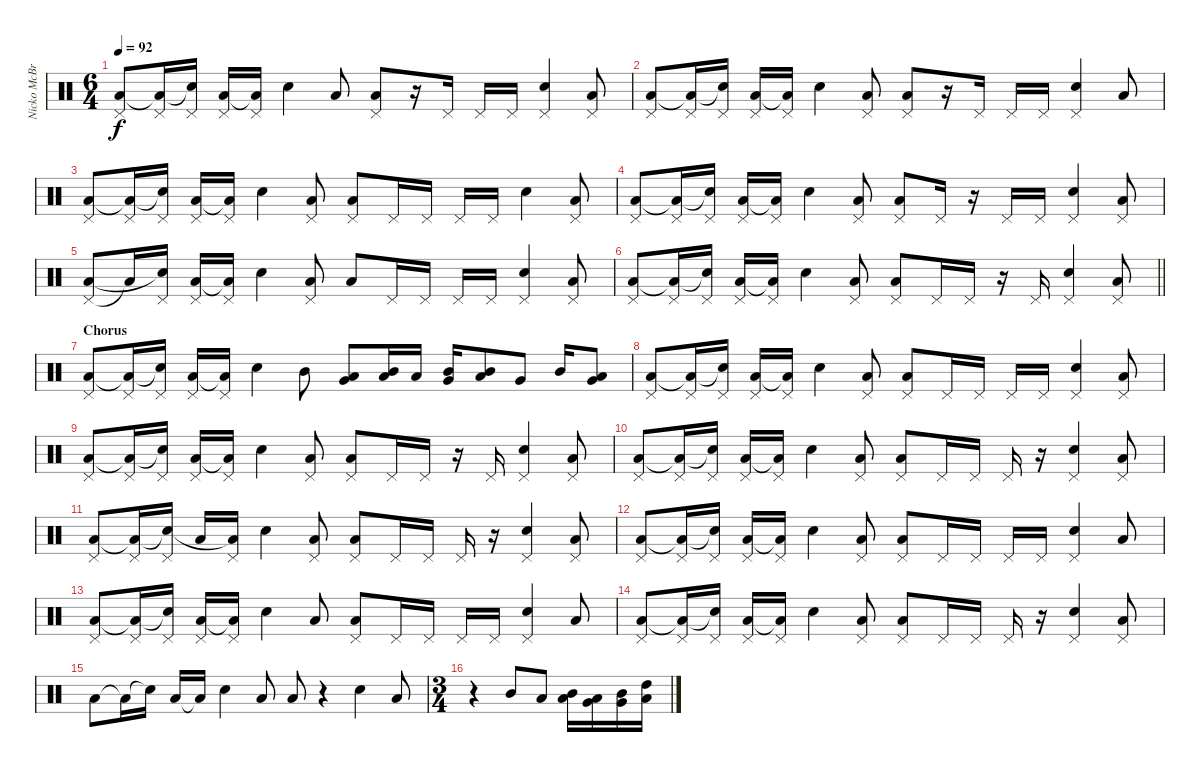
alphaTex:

\track ("Nicko McBrain" "Nicko McBr") {instrument percussion}
\staff {score}
\articulation defaults
\ts (6 4)
\tempo 92
\clef neutral
\ks c
("Pedal Hi-Hat (hit)" "Low Floor Tom (hit)").8{dy f} ("Pedal Hi-Hat (hit)" "Low Floor Tom (hit)"{t}).16 ("Pedal Hi-Hat (hit)" "Electric Snare (hit)"{t}).16 ("Pedal Hi-Hat (hit)" "Low Floor Tom (hit)").16 ("Pedal Hi-Hat (hit)" "Low Floor Tom (hit)"{t}).16 "Electric Snare (hit)".4 "Low Floor Tom (hit)".8 ("Pedal Hi-Hat (hit)" "Low Floor Tom (hit)").8 r.16 "Pedal Hi-Hat (hit)".16 "Pedal Hi-Hat (hit)".16 "Pedal Hi-Hat (hit)".16 ("Pedal Hi-Hat (hit)" "Electric Snare (hit)").4 ("Pedal Hi-Hat (hit)" "Low Floor Tom (hit)").8 |
("Pedal Hi-Hat (hit)" "Low Floor Tom (hit)").8 ("Pedal Hi-Hat (hit)" "Low Floor Tom (hit)"{t}).16 ("Pedal Hi-Hat (hit)" "Electric Snare (hit)"{t}).16 ("Pedal Hi-Hat (hit)" "Low Floor Tom (hit)").16 ("Pedal Hi-Hat (hit)" "Low Floor Tom (hit)"{t}).16 "Electric Snare (hit)".4 ("Pedal Hi-Hat (hit)" "Low Floor Tom (hit)").8 ("Pedal Hi-Hat (hit)" "Low Floor Tom (hit)").8 r.16 "Pedal Hi-Hat (hit)".16 "Pedal Hi-Hat (hit)".16 "Pedal Hi-Hat (hit)".16 ("Pedal Hi-Hat (hit)" "Electric Snare (hit)").4 "Low Floor Tom (hit)".8 |
("Pedal Hi-Hat (hit)" "Low Floor Tom (hit)").8 ("Pedal Hi-Hat (hit)" "Low Floor Tom (hit)"{t}).16 ("Pedal Hi-Hat (hit)" "Electric Snare (hit)"{t}).16 ("Pedal Hi-Hat (hit)" "Low Floor Tom (hit)").16 ("Pedal Hi-Hat (hit)" "Low Floor Tom (hit)"{t}).16 "Electric Snare (hit)".4 ("Pedal Hi-Hat (hit)" "Low Floor Tom (hit)").8 ("Pedal Hi-Hat (hit)" "Low Floor Tom (hit)").8 "Pedal Hi-Hat (hit)".16 "Pedal Hi-Hat (hit)".16 "Pedal Hi-Hat (hit)".16 "Pedal Hi-Hat (hit)".16 "Electric Snare (hit)".4 ("Pedal Hi-Hat (hit)" "Low Floor Tom (hit)").8 |
("Pedal Hi-Hat (hit)" "Low Floor Tom (hit)").8 ("Pedal Hi-Hat (hit)" "Low Floor Tom (hit)"{t}).16 ("Pedal Hi-Hat (hit)" "Electric Snare (hit)"{t}).16 ("Pedal Hi-Hat (hit)" "Low Floor Tom (hit)").16 ("Pedal Hi-Hat (hit)" "Low Floor Tom (hit)"{t}).16 "Electric Snare (hit)".4 ("Pedal Hi-Hat (hit)" "Low Floor Tom (hit)").8 ("Pedal Hi-Hat (hit)" "Low Floor Tom (hit)").8 "Pedal Hi-Hat (hit)".16 r.16 "Pedal Hi-Hat (hit)".16 "Pedal Hi-Hat (hit)".16 ("Pedal Hi-Hat (hit)" "Electric Snare (hit)").4 ("Pedal Hi-Hat (hit)" "Low Floor Tom (hit)").8 |
("Pedal Hi-Hat (hit)" "Low Floor Tom (hit)").8 "Low Floor Tom (hit)"{t}.16 ("Pedal Hi-Hat (hit)" "Electric Snare (hit)"{t}).16 ("Pedal Hi-Hat (hit)" "Low Floor Tom (hit)").16 ("Pedal Hi-Hat (hit)" "Low Floor Tom (hit)"{t}).16 "Electric Snare (hit)".4 ("Pedal Hi-Hat (hit)" "Low Floor Tom (hit)").8 "Low Floor Tom (hit)".8 "Pedal Hi-Hat (hit)".16 "Pedal Hi-Hat (hit)".16 "Pedal Hi-Hat (hit)".16 "Pedal Hi-Hat (hit)".16 ("Pedal Hi-Hat (hit)" "Electric Snare (hit)").4 ("Pedal Hi-Hat (hit)" "Low Floor Tom (hit)").8 |
\barLineRight lightlight
("Pedal Hi-Hat (hit)" "Low Floor Tom (hit)").8 ("Pedal Hi-Hat (hit)" "Low Floor Tom (hit)"{t}).16 ("Pedal Hi-Hat (hit)" "Electric Snare (hit)"{t}).16 ("Pedal Hi-Hat (hit)" "Low Floor Tom (hit)").16 ("Pedal Hi-Hat (hit)" "Low Floor Tom (hit)"{t}).16 "Electric Snare (hit)".4 ("Pedal Hi-Hat (hit)" "Low Floor Tom (hit)").8 ("Pedal Hi-Hat (hit)" "Low Floor Tom (hit)").8 "Pedal Hi-Hat (hit)".16 "Pedal Hi-Hat (hit)".16 r.16 "Pedal Hi-Hat (hit)".16 ("Pedal Hi-Hat (hit)" "Electric Snare (hit)").4 ("Pedal Hi-Hat (hit)" "Low Floor Tom (hit)").8 |
\section ("" "Chorus")
("Pedal Hi-Hat (hit)" "Low Floor Tom (hit)").8 ("Pedal Hi-Hat (hit)" "Low Floor Tom (hit)"{t}).16 ("Pedal Hi-Hat (hit)" "Electric Snare (hit)"{t}).16 ("Pedal Hi-Hat (hit)" "Low Floor Tom (hit)").16 ("Pedal Hi-Hat (hit)" "Low Floor Tom (hit)"{t}).16 "Electric Snare (hit)".4 "Mid Tom (hit)".8 ("Very Low Tom (hit)" "Low Tom (hit)").8 ("Mid Tom (hit)" "Low Tom (hit)").16 "Low Tom (hit)".16 ("Very Low Tom (hit)" "Mid Tom (hit)").16 ("Mid Tom (hit)" "Low Tom (hit)").8 "Very Low Tom (hit)".8 "Mid Tom (hit)".16 ("Very Low Tom (hit)" "Low Tom (hit)").8 |
("Pedal Hi-Hat (hit)" "Low Floor Tom (hit)").8 ("Pedal Hi-Hat (hit)" "Low Floor Tom (hit)"{t}).16 ("Pedal Hi-Hat (hit)" "Electric Snare (hit)"{t}).16 ("Pedal Hi-Hat (hit)" "Low Floor Tom (hit)").16 ("Pedal Hi-Hat (hit)" "Low Floor Tom (hit)"{t}).16 "Electric Snare (hit)".4 ("Pedal Hi-Hat (hit)" "Low Floor Tom (hit)").8 ("Pedal Hi-Hat (hit)" "Low Floor Tom (hit)").8 "Pedal Hi-Hat (hit)".16 "Pedal Hi-Hat (hit)".16 "Pedal Hi-Hat (hit)".16 "Pedal Hi-Hat (hit)".16 ("Pedal Hi-Hat (hit)" "Electric Snare (hit)").4 ("Pedal Hi-Hat (hit)" "Low Floor Tom (hit)").8 |
("Pedal Hi-Hat (hit)" "Low Floor Tom (hit)").8 ("Pedal Hi-Hat (hit)" "Low Floor Tom (hit)"{t}).16 ("Pedal Hi-Hat (hit)" "Electric Snare (hit)"{t}).16 ("Pedal Hi-Hat (hit)" "Low Floor Tom (hit)").16 ("Pedal Hi-Hat (hit)" "Low Floor Tom (hit)"{t}).16 "Electric Snare (hit)".4 ("Pedal Hi-Hat (hit)" "Low Floor Tom (hit)").8 ("Pedal Hi-Hat (hit)" "Low Floor Tom (hit)").8 "Pedal Hi-Hat (hit)".16 "Pedal Hi-Hat (hit)".16 r.16 "Pedal Hi-Hat (hit)".16 ("Pedal Hi-Hat (hit)" "Electric Snare (hit)").4 ("Pedal Hi-Hat (hit)" "Low Floor Tom (hit)").8 |
("Pedal Hi-Hat (hit)" "Low Floor Tom (hit)").8 ("Pedal Hi-Hat (hit)" "Low Floor Tom (hit)"{t}).16 ("Pedal Hi-Hat (hit)" "Electric Snare (hit)"{t}).16 ("Pedal Hi-Hat (hit)" "Low Floor Tom (hit)").16 ("Pedal Hi-Hat (hit)" "Low Floor Tom (hit)"{t}).16 "Electric Snare (hit)".4 ("Pedal Hi-Hat (hit)" "Low Floor Tom (hit)").8 ("Pedal Hi-Hat (hit)" "Low Floor Tom (hit)").8 "Pedal Hi-Hat (hit)".16 "Pedal Hi-Hat (hit)".16 "Pedal Hi-Hat (hit)".16 r.16 ("Pedal Hi-Hat (hit)" "Electric Snare (hit)").4 ("Pedal Hi-Hat (hit)" "Low Floor Tom (hit)").8 |
("Pedal Hi-Hat (hit)" "Low Floor Tom (hit)").8 ("Pedal Hi-Hat (hit)" "Low Floor Tom (hit)"{t}).16 ("Pedal Hi-Hat (hit)" "Electric Snare (hit)"{t}).16 "Low Floor Tom (hit)".16 ("Pedal Hi-Hat (hit)" "Low Floor Tom (hit)"{t}).16 "Electric Snare (hit)".4 ("Pedal Hi-Hat (hit)" "Low Floor Tom (hit)").8 ("Pedal Hi-Hat (hit)" "Low Floor Tom (hit)").8 "Pedal Hi-Hat (hit)".16 "Pedal Hi-Hat (hit)".16 "Pedal Hi-Hat (hit)".16 r.16 ("Pedal Hi-Hat (hit)" "Electric Snare (hit)").4 ("Pedal Hi-Hat (hit)" "Low Floor Tom (hit)").8 |
("Pedal Hi-Hat (hit)" "Low Floor Tom (hit)").8 ("Pedal Hi-Hat (hit)" "Low Floor Tom (hit)"{t}).16 ("Pedal Hi-Hat (hit)" "Electric Snare (hit)"{t}).16 ("Pedal Hi-Hat (hit)" "Low Floor Tom (hit)").16 ("Pedal Hi-Hat (hit)" "Low Floor Tom (hit)"{t}).16 "Electric Snare (hit)".4 ("Pedal Hi-Hat (hit)" "Low Floor Tom (hit)").8 ("Pedal Hi-Hat (hit)" "Low Floor Tom (hit)").8 "Pedal Hi-Hat (hit)".16 "Pedal Hi-Hat (hit)".16 "Pedal Hi-Hat (hit)".16 "Pedal Hi-Hat (hit)".16 ("Pedal Hi-Hat (hit)" "Electric Snare (hit)").4 "Low Floor Tom (hit)".8 |
("Pedal Hi-Hat (hit)" "Low Floor Tom (hit)").8 ("Pedal Hi-Hat (hit)" "Low Floor Tom (hit)"{t}).16 ("Pedal Hi-Hat (hit)" "Electric Snare (hit)"{t}).16 ("Pedal Hi-Hat (hit)" "Low Floor Tom (hit)").16 ("Pedal Hi-Hat (hit)" "Low Floor Tom (hit)"{t}).16 "Electric Snare (hit)".4 "Low Floor Tom (hit)".8 ("Pedal Hi-Hat (hit)" "Low Floor Tom (hit)").8 "Pedal Hi-Hat (hit)".16 "Pedal Hi-Hat (hit)".16 "Pedal Hi-Hat (hit)".16 "Pedal Hi-Hat (hit)".16 ("Pedal Hi-Hat (hit)" "Electric Snare (hit)").4 "Low Floor Tom (hit)".8 |
("Pedal Hi-Hat (hit)" "Low Floor Tom (hit)").8 ("Pedal Hi-Hat (hit)" "Low Floor Tom (hit)"{t}).16 ("Pedal Hi-Hat (hit)" "Electric Snare (hit)"{t}).16 ("Pedal Hi-Hat (hit)" "Low Floor Tom (hit)").16 ("Pedal Hi-Hat (hit)" "Low Floor Tom (hit)"{t}).16 "Electric Snare (hit)".4 ("Pedal Hi-Hat (hit)" "Low Floor Tom (hit)").8 ("Pedal Hi-Hat (hit)" "Low Floor Tom (hit)").8 "Pedal Hi-Hat (hit)".16 "Pedal Hi-Hat (hit)".16 "Pedal Hi-Hat (hit)".16 r.16 ("Pedal Hi-Hat (hit)" "Electric Snare (hit)").4 ("Pedal Hi-Hat (hit)" "Low Floor Tom (hit)").8 |
"Low Floor Tom (hit)".8 "Low Floor Tom (hit)"{t}.16 "Electric Snare (hit)"{t}.16 "Low Floor Tom (hit)".16 "Low Floor Tom (hit)"{t}.16 "Electric Snare (hit)".4 "Low Floor Tom (hit)".8 "Low Floor Tom (hit)".8 r.4 "Electric Snare (hit)".4 "Low Floor Tom (hit)".8 |
\ts (3 4)
r.4 "Mid Tom (hit)".8 "Low Tom (hit)".8 ("Mid Tom (hit)" "Low Tom (hit)").16 ("Low Tom (hit)" "Very Low Tom (hit)").16 ("Very Low Tom (hit)" "Mid Tom (hit)").16 ("High Tom (hit)" "Low Floor Tom (hit)").16
